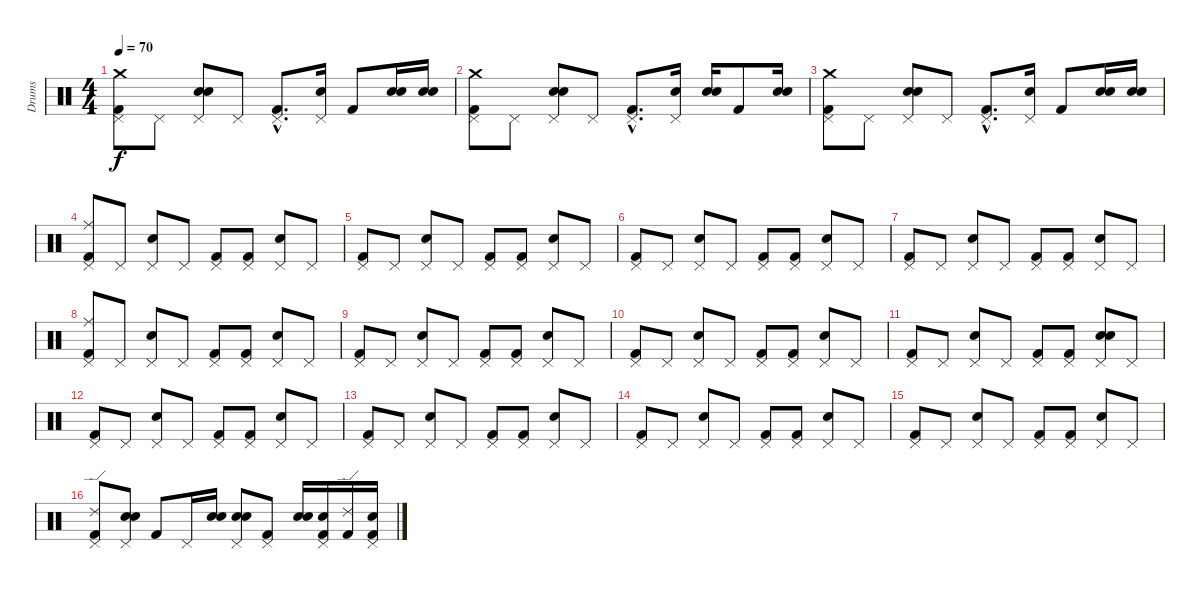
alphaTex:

\track ("Drums" "Drums") {instrument percussion}
\staff {score}
\articulation defaults
\ts (4 4)
\tempo 70
\clef neutral
\ks c
("Crash medium (hit)" "Pedal Hi-Hat (hit)" "Kick (hit) 2").8{dy f} "Pedal Hi-Hat (hit)".8 ("Pedal Hi-Hat (hit)" "Electric Snare (hit)" "Snare (hit) 2").8 "Pedal Hi-Hat (hit)".8 ("Pedal Hi-Hat (hit)"{hac} "Kick (hit) 2"{hac}).8{d} ("Pedal Hi-Hat (hit)" "Snare (hit) 2").16 "Kick (hit) 2".8 ("Electric Snare (hit)" "Snare (hit) 2").16 ("Electric Snare (hit)" "Snare (hit) 2").16 |
("Crash medium (hit)" "Pedal Hi-Hat (hit)" "Kick (hit) 2").8 "Pedal Hi-Hat (hit)".8 ("Pedal Hi-Hat (hit)" "Electric Snare (hit)" "Snare (hit) 2").8 "Pedal Hi-Hat (hit)".8 ("Pedal Hi-Hat (hit)"{hac} "Kick (hit) 2"{hac}).8{d} ("Pedal Hi-Hat (hit)" "Snare (hit) 2").16 ("Electric Snare (hit)" "Snare (hit) 2").16 "Kick (hit) 2".8 ("Electric Snare (hit)" "Snare (hit) 2").16 |
("Crash medium (hit)" "Pedal Hi-Hat (hit)" "Kick (hit) 2").8 "Pedal Hi-Hat (hit)".8 ("Pedal Hi-Hat (hit)" "Electric Snare (hit)" "Snare (hit) 2").8 "Pedal Hi-Hat (hit)".8 ("Pedal Hi-Hat (hit)"{hac} "Kick (hit) 2"{hac}).8{d} ("Pedal Hi-Hat (hit)" "Snare (hit) 2").16 "Kick (hit) 2".8 ("Electric Snare (hit)" "Snare (hit) 2").16 ("Electric Snare (hit)" "Snare (hit) 2").16 |
("Pedal Hi-Hat (hit)" "Ride (middle)" "Kick (hit) 2").8 "Pedal Hi-Hat (hit)".8 ("Pedal Hi-Hat (hit)" "Snare (hit) 2").8 "Pedal Hi-Hat (hit)".8 ("Pedal Hi-Hat (hit)" "Kick (hit) 2").8 ("Pedal Hi-Hat (hit)" "Kick (hit) 2").8 ("Pedal Hi-Hat (hit)" "Snare (hit) 2").8 "Pedal Hi-Hat (hit)".8 |
("Pedal Hi-Hat (hit)" "Kick (hit) 2").8 "Pedal Hi-Hat (hit)".8 ("Pedal Hi-Hat (hit)" "Snare (hit) 2").8 "Pedal Hi-Hat (hit)".8 ("Pedal Hi-Hat (hit)" "Kick (hit) 2").8 ("Pedal Hi-Hat (hit)" "Kick (hit) 2").8 ("Pedal Hi-Hat (hit)" "Snare (hit) 2").8 "Pedal Hi-Hat (hit)".8 |
("Pedal Hi-Hat (hit)" "Kick (hit) 2").8 "Pedal Hi-Hat (hit)".8 ("Pedal Hi-Hat (hit)" "Snare (hit) 2").8 "Pedal Hi-Hat (hit)".8 ("Pedal Hi-Hat (hit)" "Kick (hit) 2").8 ("Pedal Hi-Hat (hit)" "Kick (hit) 2").8 ("Pedal Hi-Hat (hit)" "Snare (hit) 2").8 "Pedal Hi-Hat (hit)".8 |
("Pedal Hi-Hat (hit)" "Kick (hit) 2").8 "Pedal Hi-Hat (hit)".8 ("Pedal Hi-Hat (hit)" "Snare (hit) 2").8 "Pedal Hi-Hat (hit)".8 ("Pedal Hi-Hat (hit)" "Kick (hit) 2").8 ("Pedal Hi-Hat (hit)" "Kick (hit) 2").8 ("Pedal Hi-Hat (hit)" "Snare (hit) 2").8 "Pedal Hi-Hat (hit)".8 |
("Pedal Hi-Hat (hit)" "Ride (middle)" "Kick (hit) 2").8 "Pedal Hi-Hat (hit)".8 ("Pedal Hi-Hat (hit)" "Snare (hit) 2").8 "Pedal Hi-Hat (hit)".8 ("Pedal Hi-Hat (hit)" "Kick (hit) 2").8 ("Pedal Hi-Hat (hit)" "Kick (hit) 2").8 ("Pedal Hi-Hat (hit)" "Snare (hit) 2").8 "Pedal Hi-Hat (hit)".8 |
("Pedal Hi-Hat (hit)" "Kick (hit) 2").8 "Pedal Hi-Hat (hit)".8 ("Pedal Hi-Hat (hit)" "Snare (hit) 2").8 "Pedal Hi-Hat (hit)".8 ("Pedal Hi-Hat (hit)" "Kick (hit) 2").8 ("Pedal Hi-Hat (hit)" "Kick (hit) 2").8 ("Pedal Hi-Hat (hit)" "Snare (hit) 2").8 "Pedal Hi-Hat (hit)".8 |
("Pedal Hi-Hat (hit)" "Kick (hit) 2").8 "Pedal Hi-Hat (hit)".8 ("Pedal Hi-Hat (hit)" "Snare (hit) 2").8 "Pedal Hi-Hat (hit)".8 ("Pedal Hi-Hat (hit)" "Kick (hit) 2").8 ("Pedal Hi-Hat (hit)" "Kick (hit) 2").8 ("Pedal Hi-Hat (hit)" "Snare (hit) 2").8 "Pedal Hi-Hat (hit)".8 |
("Pedal Hi-Hat (hit)" "Kick (hit) 2").8 "Pedal Hi-Hat (hit)".8 ("Pedal Hi-Hat (hit)" "Snare (hit) 2").8 "Pedal Hi-Hat (hit)".8 ("Pedal Hi-Hat (hit)" "Kick (hit) 2").8 ("Pedal Hi-Hat (hit)" "Kick (hit) 2").8 ("Pedal Hi-Hat (hit)" "Electric Snare (hit)" "Snare (hit) 2").8 "Pedal Hi-Hat (hit)".8 |
("Pedal Hi-Hat (hit)" "Kick (hit) 2").8 "Pedal Hi-Hat (hit)".8 ("Pedal Hi-Hat (hit)" "Snare (hit) 2").8 "Pedal Hi-Hat (hit)".8 ("Pedal Hi-Hat (hit)" "Kick (hit) 2").8 ("Pedal Hi-Hat (hit)" "Kick (hit) 2").8 ("Pedal Hi-Hat (hit)" "Snare (hit) 2").8 "Pedal Hi-Hat (hit)".8 |
("Pedal Hi-Hat (hit)" "Kick (hit) 2").8 "Pedal Hi-Hat (hit)".8 ("Pedal Hi-Hat (hit)" "Snare (hit) 2").8 "Pedal Hi-Hat (hit)".8 ("Pedal Hi-Hat (hit)" "Kick (hit) 2").8 ("Pedal Hi-Hat (hit)" "Kick (hit) 2").8 ("Pedal Hi-Hat (hit)" "Snare (hit) 2").8 "Pedal Hi-Hat (hit)".8 |
("Pedal Hi-Hat (hit)" "Kick (hit) 2").8 "Pedal Hi-Hat (hit)".8 ("Pedal Hi-Hat (hit)" "Snare (hit) 2").8 "Pedal Hi-Hat (hit)".8 ("Pedal Hi-Hat (hit)" "Kick (hit) 2").8 ("Pedal Hi-Hat (hit)" "Kick (hit) 2").8 ("Pedal Hi-Hat (hit)" "Snare (hit) 2").8 "Pedal Hi-Hat (hit)".8 |
("Pedal Hi-Hat (hit)" "Kick (hit) 2").8 "Pedal Hi-Hat (hit)".8 ("Pedal Hi-Hat (hit)" "Snare (hit) 2").8 "Pedal Hi-Hat (hit)".8 ("Pedal Hi-Hat (hit)" "Kick (hit) 2").8 ("Pedal Hi-Hat (hit)" "Kick (hit) 2").8 ("Pedal Hi-Hat (hit)" "Snare (hit) 2").8 "Pedal Hi-Hat (hit)".8 |
("Ride (edge) 2" "Pedal Hi-Hat (hit)" "Kick (hit) 2").8 ("Pedal Hi-Hat (hit)" "Electric Snare (hit)" "Snare (hit) 2").8 "Kick (hit) 2".8 "Pedal Hi-Hat (hit)".16 ("Snare (hit) 2" "Electric Snare (hit)").16 ("Pedal Hi-Hat (hit)" "Snare (hit) 2" "Electric Snare (hit)").8 ("Pedal Hi-Hat (hit)" "Kick (hit) 2").8 ("Electric Snare (hit)" "Snare (hit) 2").16 ("Pedal Hi-Hat (hit)" "Electric Snare (hit)" "Kick (hit) 2").16 ("Ride (edge) 2" "Kick (hit) 2").16 ("Pedal Hi-Hat (hit)" "Electric Snare (hit)" "Kick (hit) 2").16
